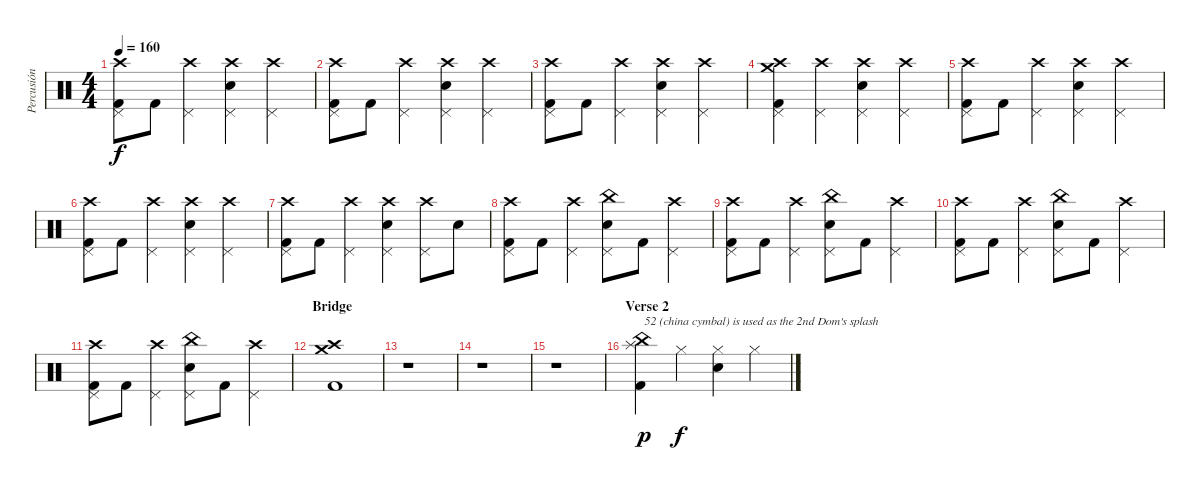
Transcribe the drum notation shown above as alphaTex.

\track ("Percusión" "Percusión") {instrument percussion}
\staff {score}
\articulation defaults
\ts (4 4)
\tempo 160
\clef neutral
\ks c
("Crash high (hit)" "Pedal Hi-Hat (hit)" "Kick (hit) 2").8{dy f} "Kick (hit) 2".8 ("Crash high (hit)" "Pedal Hi-Hat (hit)").4 ("Crash high (hit)" "Snare (hit) 2" "Pedal Hi-Hat (hit)").4 ("Crash high (hit)" "Pedal Hi-Hat (hit)").4 |
("Crash high (hit)" "Pedal Hi-Hat (hit)" "Kick (hit) 2").8 "Kick (hit) 2".8 ("Crash high (hit)" "Pedal Hi-Hat (hit)").4 ("Crash high (hit)" "Snare (hit) 2" "Pedal Hi-Hat (hit)").4 ("Crash high (hit)" "Pedal Hi-Hat (hit)").4 |
("Crash high (hit)" "Pedal Hi-Hat (hit)" "Kick (hit) 2").8 "Kick (hit) 2".8 ("Crash high (hit)" "Pedal Hi-Hat (hit)").4 ("Crash high (hit)" "Snare (hit) 2" "Pedal Hi-Hat (hit)").4 ("Crash high (hit)" "Pedal Hi-Hat (hit)").4 |
("Crash medium (hit)" "Crash high (hit)" "Pedal Hi-Hat (hit)" "Kick (hit) 2").4 ("Crash high (hit)" "Pedal Hi-Hat (hit)").4 ("Crash high (hit)" "Snare (hit) 2" "Pedal Hi-Hat (hit)").4 ("Crash high (hit)" "Pedal Hi-Hat (hit)").4 |
("Crash high (hit)" "Pedal Hi-Hat (hit)" "Kick (hit) 2").8 "Kick (hit) 2".8 ("Crash high (hit)" "Pedal Hi-Hat (hit)").4 ("Crash high (hit)" "Snare (hit) 2" "Pedal Hi-Hat (hit)").4 ("Crash high (hit)" "Pedal Hi-Hat (hit)").4 |
("Crash high (hit)" "Pedal Hi-Hat (hit)" "Kick (hit) 2").8 "Kick (hit) 2".8 ("Crash high (hit)" "Pedal Hi-Hat (hit)").4 ("Crash high (hit)" "Snare (hit) 2" "Pedal Hi-Hat (hit)").4 ("Crash high (hit)" "Pedal Hi-Hat (hit)").4 |
("Crash high (hit)" "Pedal Hi-Hat (hit)" "Kick (hit) 2").8 "Kick (hit) 2".8 ("Crash high (hit)" "Pedal Hi-Hat (hit)").4 ("Crash high (hit)" "Snare (hit) 2" "Pedal Hi-Hat (hit)").4 ("Crash high (hit)" "Pedal Hi-Hat (hit)").8 "Snare (hit) 2".8 |
("Crash high (hit)" "Pedal Hi-Hat (hit)" "Kick (hit) 2").8 "Kick (hit) 2".8 ("Crash high (hit)" "Pedal Hi-Hat (hit)").4 ("China (hit)" "Snare (hit) 2" "Pedal Hi-Hat (hit)").8 "Kick (hit) 2".8 ("Crash high (hit)" "Pedal Hi-Hat (hit)").4 |
("Crash high (hit)" "Pedal Hi-Hat (hit)" "Kick (hit) 2").8 "Kick (hit) 2".8 ("Crash high (hit)" "Pedal Hi-Hat (hit)").4 ("China (hit)" "Snare (hit) 2" "Pedal Hi-Hat (hit)").8 "Kick (hit) 2".8 ("Crash high (hit)" "Pedal Hi-Hat (hit)").4 |
("Crash high (hit)" "Pedal Hi-Hat (hit)" "Kick (hit) 2").8 "Kick (hit) 2".8 ("Crash high (hit)" "Pedal Hi-Hat (hit)").4 ("China (hit)" "Snare (hit) 2" "Pedal Hi-Hat (hit)").8 "Kick (hit) 2".8 ("Crash high (hit)" "Pedal Hi-Hat (hit)").4 |
("Crash high (hit)" "Pedal Hi-Hat (hit)" "Kick (hit) 2").8 "Kick (hit) 2".8 ("Crash high (hit)" "Pedal Hi-Hat (hit)").4 ("China (hit)" "Snare (hit) 2" "Pedal Hi-Hat (hit)").8 "Kick (hit) 2".8 ("Crash high (hit)" "Pedal Hi-Hat (hit)").4 |
\section ("" "Bridge")
("Crash high (hit)" "Kick (hit) 2" "Crash medium (hit)").1 |
r.1 |
r.1 |
r.1 |
\section ("" "Verse 2")
("Splash (hit)" "China (hit)" "Kick (hit) 2").4{txt "52 (china cymbal) is used as the 2nd Dom's splash" dy p} "Hi-Hat (closed)".4{dy f} ("Hi-Hat (closed)" "Snare (hit) 2").4 "Hi-Hat (closed)".4
